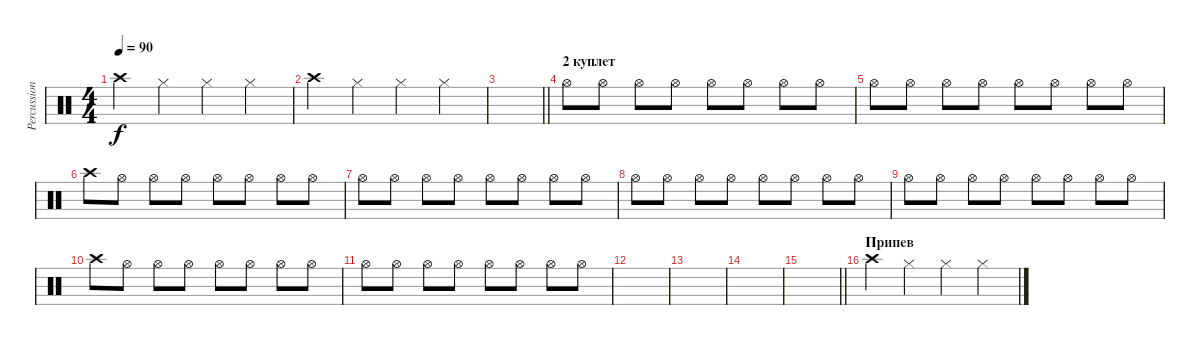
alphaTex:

\track ("Percussion" "Percussion") {instrument percussion}
\staff {score}
\articulation defaults
\ts (4 4)
\tempo 90
\clef neutral
\ks c "Crash high (hit)".4{dy f} "Hi-Hat (closed)".4 "Hi-Hat (closed)".4 "Hi-Hat (closed)".4
|
"Crash high (hit)".4 "Hi-Hat (closed)".4 "Hi-Hat (closed)".4 "Hi-Hat (closed)".4 |
\barLineRight lightlight
|
\section ("" "2 куплет")
"Hi-Hat (open)".8 "Hi-Hat (open)".8 "Hi-Hat (open)".8 "Hi-Hat (open)".8 "Hi-Hat (open)".8 "Hi-Hat (open)".8 "Hi-Hat (open)".8 "Hi-Hat (open)".8 |
"Hi-Hat (open)".8 "Hi-Hat (open)".8 "Hi-Hat (open)".8 "Hi-Hat (open)".8 "Hi-Hat (open)".8 "Hi-Hat (open)".8 "Hi-Hat (open)".8 "Hi-Hat (open)".8 |
"Crash high (hit)".8 "Hi-Hat (open)".8 "Hi-Hat (open)".8 "Hi-Hat (open)".8 "Hi-Hat (open)".8 "Hi-Hat (open)".8 "Hi-Hat (open)".8 "Hi-Hat (open)".8 |
"Hi-Hat (open)".8 "Hi-Hat (open)".8 "Hi-Hat (open)".8 "Hi-Hat (open)".8 "Hi-Hat (open)".8 "Hi-Hat (open)".8 "Hi-Hat (open)".8 "Hi-Hat (open)".8 |
"Hi-Hat (open)".8 "Hi-Hat (open)".8 "Hi-Hat (open)".8 "Hi-Hat (open)".8 "Hi-Hat (open)".8 "Hi-Hat (open)".8 "Hi-Hat (open)".8 "Hi-Hat (open)".8 |
"Hi-Hat (open)".8 "Hi-Hat (open)".8 "Hi-Hat (open)".8 "Hi-Hat (open)".8 "Hi-Hat (open)".8 "Hi-Hat (open)".8 "Hi-Hat (open)".8 "Hi-Hat (open)".8 |
"Crash high (hit)".8 "Hi-Hat (open)".8 "Hi-Hat (open)".8 "Hi-Hat (open)".8 "Hi-Hat (open)".8 "Hi-Hat (open)".8 "Hi-Hat (open)".8 "Hi-Hat (open)".8 |
"Hi-Hat (open)".8 "Hi-Hat (open)".8 "Hi-Hat (open)".8 "Hi-Hat (open)".8 "Hi-Hat (open)".8 "Hi-Hat (open)".8 "Hi-Hat (open)".8 "Hi-Hat (open)".8 |
|
|
|
\barLineRight lightlight
|
\section ("" "Припев")
"Crash high (hit)".4 "Hi-Hat (closed)".4 "Hi-Hat (closed)".4 "Hi-Hat (closed)".4
